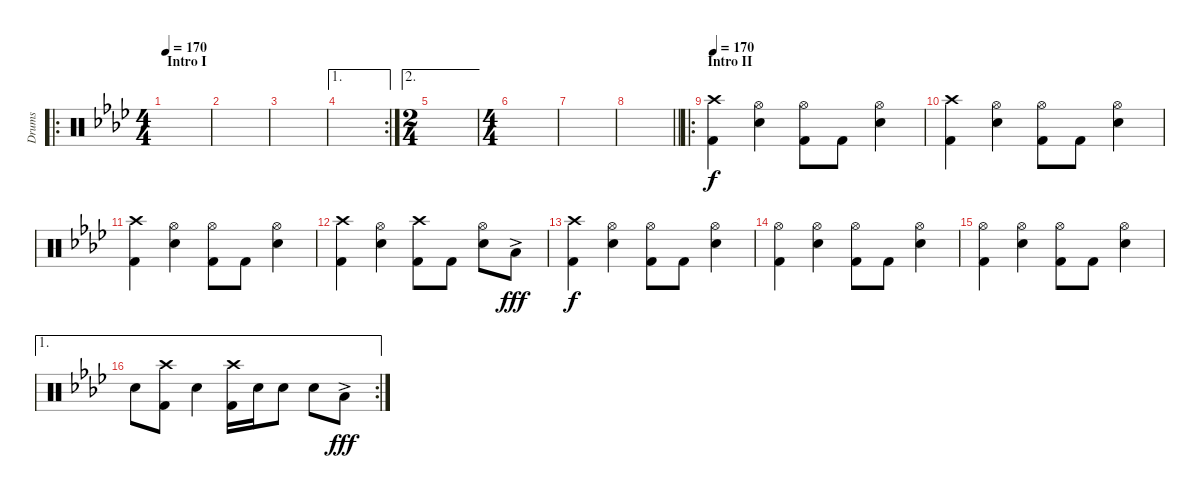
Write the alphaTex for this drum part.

\track ("Drums" "Drums") {instrument percussion}
\staff {score}
\articulation defaults
\ro
\ts (4 4)
\section ("" "Intro I")
\tempo 170
\tempo 130
\tempo 170
\clef neutral
\ks ab
|
|
|
\ae 1
\rc 2
|
\ae 2
\ts (2 4)
|
\ts (4 4)
|
|
\barLineRight lightlight
|
\ro
\section ("" "Intro II")
\tempo 170
("Crash high (hit)" "Kick (hit) 2").4 ("Hi-Hat (open)" "Snare (hit) 2").4 ("Hi-Hat (open)" "Kick (hit) 2").8 "Kick (hit) 2".8 ("Hi-Hat (open)" "Snare (hit) 2").4 |
("Crash high (hit)" "Kick (hit) 2").4 ("Hi-Hat (open)" "Snare (hit) 2").4 ("Hi-Hat (open)" "Kick (hit) 2").8 "Kick (hit) 2".8 ("Hi-Hat (open)" "Snare (hit) 2").4 |
("Crash high (hit)" "Kick (hit) 2").4 ("Hi-Hat (open)" "Snare (hit) 2").4 ("Hi-Hat (open)" "Kick (hit) 2").8 "Kick (hit) 2".8 ("Hi-Hat (open)" "Snare (hit) 2").4 |
("Crash high (hit)" "Kick (hit) 2").4 ("Hi-Hat (open)" "Snare (hit) 2").4 ("Crash high (hit)" "Kick (hit) 2").8 "Kick (hit) 2".8 ("Hi-Hat (open)" "Snare (hit) 2").8 "Low Tom (hit)"{ac}.8{dy fff} |
("Crash high (hit)" "Kick (hit) 2").4{dy f} ("Hi-Hat (open)" "Snare (hit) 2").4 ("Hi-Hat (open)" "Kick (hit) 2").8 "Kick (hit) 2".8 ("Hi-Hat (open)" "Snare (hit) 2").4 |
("Hi-Hat (open)" "Kick (hit) 2").4 ("Hi-Hat (open)" "Snare (hit) 2").4 ("Hi-Hat (open)" "Kick (hit) 2").8 "Kick (hit) 2".8 ("Hi-Hat (open)" "Snare (hit) 2").4 |
("Hi-Hat (open)" "Kick (hit) 2").4 ("Hi-Hat (open)" "Snare (hit) 2").4 ("Hi-Hat (open)" "Kick (hit) 2").8 "Kick (hit) 2".8 ("Hi-Hat (open)" "Snare (hit) 2").4 |
\ae 1
\rc 2 "Snare (hit) 2".8
("Crash high (hit)" "Kick (hit) 2").8 "Snare (hit) 2".4 ("Crash high (hit)" "Kick (hit) 2").16 "Snare (hit) 2".16 "Snare (hit) 2".8 "Snare (hit) 2".8 "Low Floor Tom (hit)"{ac}.8{dy fff}
